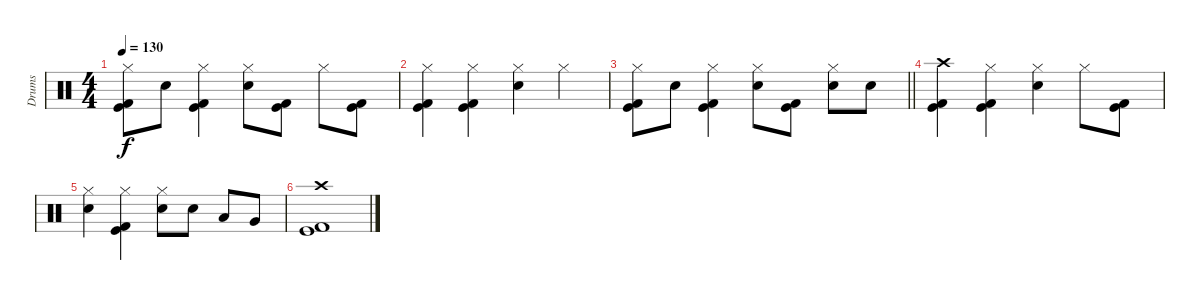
\track ("Drums" "Drums") {instrument percussion}
\staff {score}
\articulation defaults
\ts (4 4)
\tempo 130
\clef neutral
\ks c
("Hi-Hat (closed)" "Kick (hit)" "Kick (hit) 2").8{dy f} "Electric Snare (hit)".8 ("Hi-Hat (closed)" "Kick (hit)" "Kick (hit) 2").4 ("Hi-Hat (closed)" "Electric Snare (hit)").8 ("Kick (hit)" "Kick (hit) 2").8 "Hi-Hat (closed)".8 ("Kick (hit)" "Kick (hit) 2").8 |
("Hi-Hat (closed)" "Kick (hit)" "Kick (hit) 2").4 ("Hi-Hat (closed)" "Kick (hit)" "Kick (hit) 2").4 ("Hi-Hat (closed)" "Electric Snare (hit)").4 "Hi-Hat (closed)".4 |
\barLineRight lightlight
("Hi-Hat (closed)" "Kick (hit)" "Kick (hit) 2").8 "Electric Snare (hit)".8 ("Hi-Hat (closed)" "Kick (hit)" "Kick (hit) 2").4 ("Hi-Hat (closed)" "Electric Snare (hit)").8 ("Kick (hit)" "Kick (hit) 2").8 ("Hi-Hat (closed)" "Electric Snare (hit)").8 "Electric Snare (hit)".8 |
("Crash high (hit)" "Kick (hit)" "Kick (hit) 2").4 ("Hi-Hat (closed)" "Kick (hit)" "Kick (hit) 2").4 ("Hi-Hat (closed)" "Electric Snare (hit)").4 "Hi-Hat (closed)".8 ("Kick (hit)" "Kick (hit) 2").8 |
("Hi-Hat (closed)" "Electric Snare (hit)").4 ("Hi-Hat (closed)" "Kick (hit)" "Kick (hit) 2").4 ("Hi-Hat (closed)" "Electric Snare (hit)").8 "Electric Snare (hit)".8 "Low Tom (hit)".8 "Very Low Tom (hit)".8 |
("Crash high (hit)" "Kick (hit)" "Kick (hit) 2").1{volume 0}
